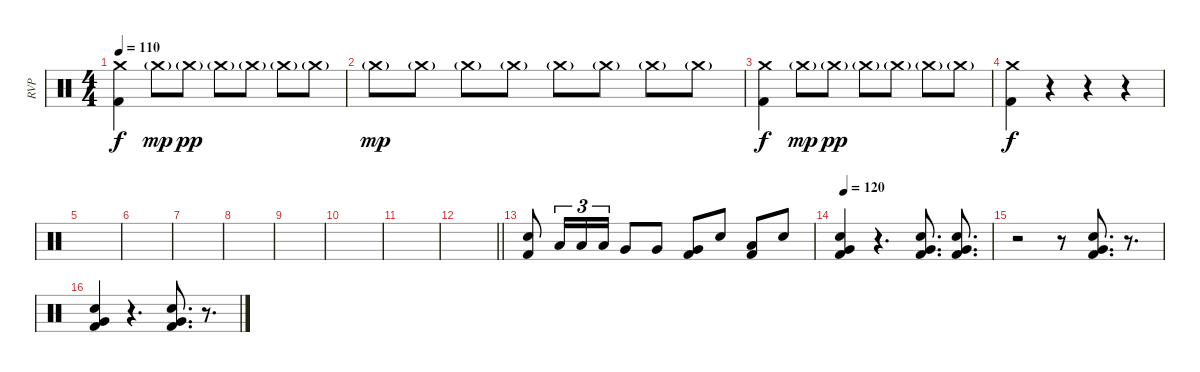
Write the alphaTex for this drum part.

\track ("RVP" "RVP") {instrument percussion}
\staff {score}
\articulation defaults
\ts (4 4)
\tempo 110
\clef neutral
\ks c
("Crash medium (hit)" "Kick (hit) 2").4{dy f} "Crash medium (hit)"{g}.8{dy mp} "Crash medium (hit)"{g}.8{dy pp} "Crash medium (hit)"{g}.8 "Crash medium (hit)"{g}.8 "Crash medium (hit)"{g}.8 "Crash medium (hit)"{g}.8 |
"Crash medium (hit)"{g}.8{dy mp} "Crash medium (hit)"{g}.8 "Crash medium (hit)"{g}.8 "Crash medium (hit)"{g}.8 "Crash medium (hit)"{g}.8 "Crash medium (hit)"{g}.8 "Crash medium (hit)"{g}.8 "Crash medium (hit)"{g}.8 |
("Crash medium (hit)" "Kick (hit) 2").4{dy f} "Crash medium (hit)"{g}.8{dy mp} "Crash medium (hit)"{g}.8{dy pp} "Crash medium (hit)"{g}.8 "Crash medium (hit)"{g}.8 "Crash medium (hit)"{g}.8 "Crash medium (hit)"{g}.8 |
("Crash medium (hit)" "Kick (hit) 2").4{dy f} r.4 r.4 r.4 |
|
|
|
|
|
|
|
\barLineRight lightlight
|
("Electric Snare (hit)" "Kick (hit) 2").8 "Low Tom (hit)".16{tu (3 2)} "Low Tom (hit)".16{tu (3 2)} "Low Tom (hit)".16{tu (3 2)} "Very Low Tom (hit)".8 "Very Low Tom (hit)".8 ("Very Low Tom (hit)" "Kick (hit) 2").8 "Electric Snare (hit)".8 ("Low Tom (hit)" "Kick (hit) 2").8 "Electric Snare (hit)".8 |
\tempo 120
("Very Low Tom (hit)" "Electric Snare (hit)" "Kick (hit) 2").4 r.4{d} ("Very Low Tom (hit)" "Electric Snare (hit)" "Kick (hit) 2").8{d} ("Very Low Tom (hit)" "Electric Snare (hit)" "Kick (hit) 2").8{d} |
r.2 r.8 ("Very Low Tom (hit)" "Electric Snare (hit)" "Kick (hit) 2").8{d} r.8{d} |
("Very Low Tom (hit)" "Electric Snare (hit)" "Kick (hit) 2").4 r.4{d} ("Very Low Tom (hit)" "Electric Snare (hit)" "Kick (hit) 2").8{d} r.8{d}
